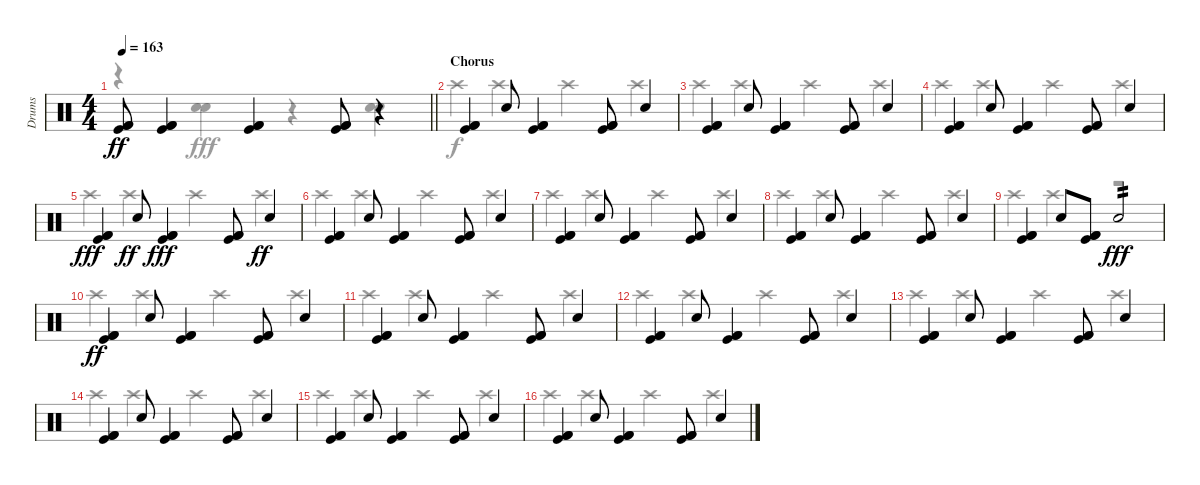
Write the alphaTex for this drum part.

\track ("Drums" "Drums") {instrument percussion}
\staff {score}
\articulation defaults
\voice
\ts (4 4)
\tempo 163
\clef neutral
\barLineRight lightlight
\ks c
("Kick (hit) 2" "Kick (hit) 2" "Kick (hit)").8{dy ff} ("Kick (hit) 2" "Kick (hit) 2" "Kick (hit)").4 ("Kick (hit) 2" "Kick (hit) 2" "Kick (hit)").4 ("Kick (hit) 2" "Kick (hit) 2" "Kick (hit)").8 r.4 |
\section ("" "Chorus")
("Kick (hit) 2" "Kick (hit) 2" "Kick (hit)").4 "Electric Snare (hit)".8 ("Kick (hit) 2" "Kick (hit) 2" "Kick (hit)").4 ("Kick (hit) 2" "Kick (hit) 2" "Kick (hit)").8 "Electric Snare (hit)".4 |
("Kick (hit) 2" "Kick (hit) 2" "Kick (hit)").4 "Electric Snare (hit)".8 ("Kick (hit) 2" "Kick (hit) 2" "Kick (hit)").4 ("Kick (hit) 2" "Kick (hit) 2" "Kick (hit)").8 "Electric Snare (hit)".4 |
("Kick (hit) 2" "Kick (hit) 2" "Kick (hit)").4 "Electric Snare (hit)".8 ("Kick (hit) 2" "Kick (hit) 2" "Kick (hit)").4 ("Kick (hit) 2" "Kick (hit) 2" "Kick (hit)").8 "Electric Snare (hit)".4 |
("Kick (hit) 2" "Kick (hit) 2" "Kick (hit)").4{dy fff} "Electric Snare (hit)".8{dy ff} ("Kick (hit) 2" "Kick (hit) 2" "Kick (hit)").4{dy fff} ("Kick (hit) 2" "Kick (hit) 2" "Kick (hit)").8 "Electric Snare (hit)".4{dy ff} |
("Kick (hit) 2" "Kick (hit) 2" "Kick (hit)").4 "Electric Snare (hit)".8 ("Kick (hit) 2" "Kick (hit) 2" "Kick (hit)").4 ("Kick (hit) 2" "Kick (hit) 2" "Kick (hit)").8 "Electric Snare (hit)".4 |
("Kick (hit) 2" "Kick (hit) 2" "Kick (hit)").4 "Electric Snare (hit)".8 ("Kick (hit) 2" "Kick (hit) 2" "Kick (hit)").4 ("Kick (hit) 2" "Kick (hit) 2" "Kick (hit)").8 "Electric Snare (hit)".4 |
("Kick (hit) 2" "Kick (hit) 2" "Kick (hit)").4 "Electric Snare (hit)".8 ("Kick (hit) 2" "Kick (hit) 2" "Kick (hit)").4 ("Kick (hit) 2" "Kick (hit) 2" "Kick (hit)").8 "Electric Snare (hit)".4 |
("Kick (hit) 2" "Kick (hit) 2" "Kick (hit)").4 "Electric Snare (hit)".8 ("Kick (hit) 2" "Kick (hit) 2" "Kick (hit)").8 "Electric Snare (hit)".2{tp 2 dy fff} |
("Kick (hit) 2" "Kick (hit) 2" "Kick (hit)").4{dy ff} "Electric Snare (hit)".8 ("Kick (hit) 2" "Kick (hit) 2" "Kick (hit)").4 ("Kick (hit) 2" "Kick (hit) 2" "Kick (hit)").8 "Electric Snare (hit)".4 |
("Kick (hit) 2" "Kick (hit) 2" "Kick (hit)").4 "Electric Snare (hit)".8 ("Kick (hit) 2" "Kick (hit) 2" "Kick (hit)").4 ("Kick (hit) 2" "Kick (hit) 2" "Kick (hit)").8 "Electric Snare (hit)".4 |
("Kick (hit) 2" "Kick (hit) 2" "Kick (hit)").4 "Electric Snare (hit)".8 ("Kick (hit) 2" "Kick (hit) 2" "Kick (hit)").4 ("Kick (hit) 2" "Kick (hit) 2" "Kick (hit)").8 "Electric Snare (hit)".4 |
("Kick (hit) 2" "Kick (hit) 2" "Kick (hit)").4 "Electric Snare (hit)".8 ("Kick (hit) 2" "Kick (hit) 2" "Kick (hit)").4 ("Kick (hit) 2" "Kick (hit) 2" "Kick (hit)").8 "Electric Snare (hit)".4 |
("Kick (hit) 2" "Kick (hit) 2" "Kick (hit)").4 "Electric Snare (hit)".8 ("Kick (hit) 2" "Kick (hit) 2" "Kick (hit)").4 ("Kick (hit) 2" "Kick (hit) 2" "Kick (hit)").8 "Electric Snare (hit)".4 |
("Kick (hit) 2" "Kick (hit) 2" "Kick (hit)").4 "Electric Snare (hit)".8 ("Kick (hit) 2" "Kick (hit) 2" "Kick (hit)").4 ("Kick (hit) 2" "Kick (hit) 2" "Kick (hit)").8 "Electric Snare (hit)".4 |
("Kick (hit) 2" "Kick (hit) 2" "Kick (hit)").4 "Electric Snare (hit)".8 ("Kick (hit) 2" "Kick (hit) 2" "Kick (hit)").4 ("Kick (hit) 2" "Kick (hit) 2" "Kick (hit)").8 "Electric Snare (hit)".4
\voice
\clef neutral
\ottava regular
\simile none
\barLineRight lightlight
\ks c
r.4{dy fff} ("Hand Clap (hit)" "Hand Clap (hit)").4 r.4 ("Hand Clap (hit)" "Hand Clap (hit)").4 |
"Crash high (hit)".4{dy f} "Crash high (hit)".4 "Crash high (hit)".4 "Crash high (hit)".4 |
"Crash high (hit)".4 "Crash high (hit)".4 "Crash high (hit)".4 "Crash high (hit)".4 |
"Crash high (hit)".4 "Crash high (hit)".4 "Crash high (hit)".4 "Crash high (hit)".4 |
"Crash high (hit)".4 "Crash high (hit)".4 "Crash high (hit)".4 "Crash high (hit)".4 |
"Crash high (hit)".4 "Crash high (hit)".4 "Crash high (hit)".4 "Crash high (hit)".4 |
"Crash high (hit)".4 "Crash high (hit)".4 "Crash high (hit)".4 "Crash high (hit)".4 |
"Crash high (hit)".4 "Crash high (hit)".4 "Crash high (hit)".4 "Crash high (hit)".4 |
"Crash high (hit)".4 "Crash high (hit)".4 r.2 |
"Crash high (hit)".4 "Crash high (hit)".4 "Crash high (hit)".4 "Crash high (hit)".4 |
"Crash high (hit)".4 "Crash high (hit)".4 "Crash high (hit)".4 "Crash high (hit)".4 |
"Crash high (hit)".4 "Crash high (hit)".4 "Crash high (hit)".4 "Crash high (hit)".4 |
"Crash high (hit)".4 "Crash high (hit)".4 "Crash high (hit)".4 "Crash high (hit)".4 |
"Crash high (hit)".4 "Crash high (hit)".4 "Crash high (hit)".4 "Crash high (hit)".4 |
"Crash high (hit)".4 "Crash high (hit)".4 "Crash high (hit)".4 "Crash high (hit)".4 |
"Crash high (hit)".4 "Crash high (hit)".4 "Crash high (hit)".4 "Crash high (hit)".4
